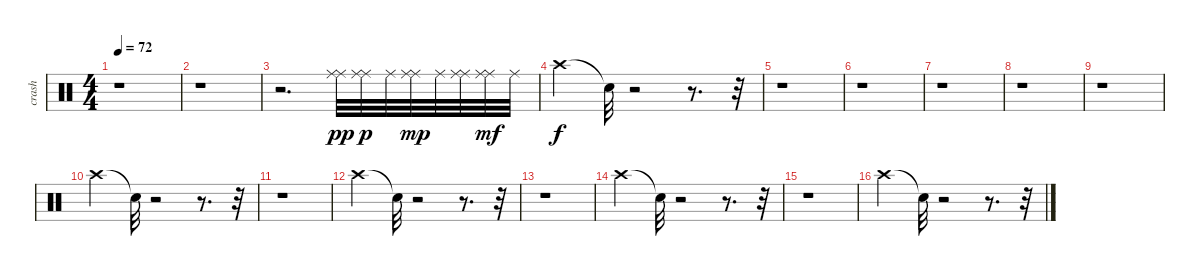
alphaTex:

\track ("crash" "crash") {instrument percussion}
\staff {score}
\articulation defaults
\ts (4 4)
\tempo 72
\clef neutral
\ks c
r.1{dy f} |
r.1 |
r.2{d} ("Ride (middle)" "Ride (middle)").32{dy pp} ("Ride (middle)" "Ride (middle)").32{dy p} "Ride (middle)".32 ("Ride (middle)" "Ride (middle)").32{dy mp} "Ride (middle)".32 ("Ride (middle)" "Ride (middle)").32 ("Ride (middle)" "Ride (middle)").32{dy mf} "Ride (middle)".32 |
"Crash high (hit)".4{dy f} "Snare (hit)"{t}.32 r.2 r.8{d} r.32 |
r.1 |
r.1 |
r.1 |
r.1 |
r.1 |
"Crash high (hit)".4 "Snare (hit)"{t}.32 r.2 r.8{d} r.32 |
r.1 |
"Crash high (hit)".4 "Snare (hit)"{t}.32 r.2 r.8{d} r.32 |
r.1 |
"Crash high (hit)".4 "Snare (hit)"{t}.32 r.2 r.8{d} r.32 |
r.1 |
"Crash high (hit)".4 "Snare (hit)"{t}.32 r.2 r.8{d} r.32
